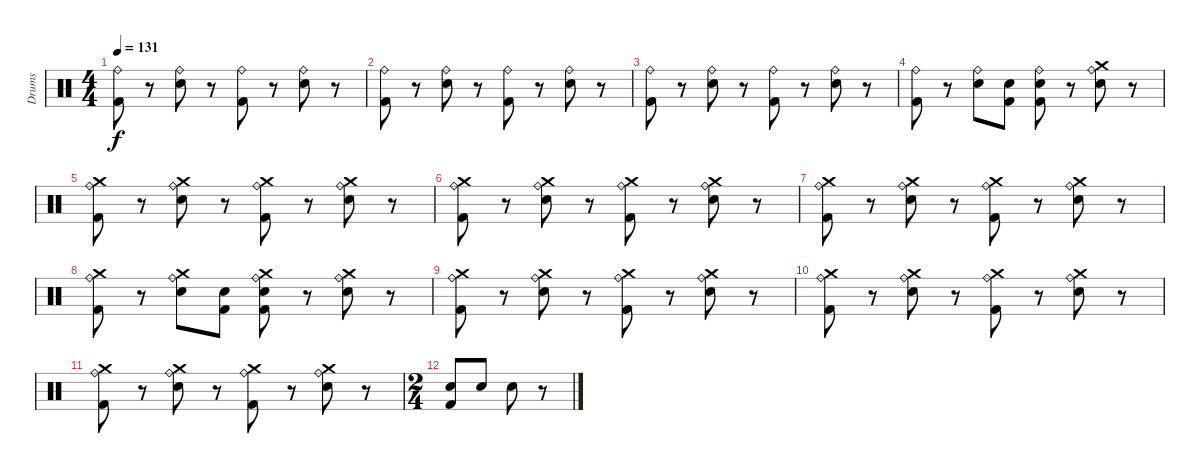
\track ("Drums" "Drums") {instrument percussion}
\staff {score}
\articulation defaults
\ts (4 4)
\tempo 131
\clef neutral
\ks c
("Ride (bell)" "Kick (hit) 2").8{dy f} r.8 ("Ride (bell)" "Electric Snare (hit)").8 r.8 ("Ride (bell)" "Kick (hit) 2").8 r.8 ("Ride (bell)" "Electric Snare (hit)").8 r.8 |
("Ride (bell)" "Kick (hit) 2").8 r.8 ("Ride (bell)" "Electric Snare (hit)").8 r.8 ("Ride (bell)" "Kick (hit) 2").8 r.8 ("Ride (bell)" "Electric Snare (hit)").8 r.8 |
("Ride (bell)" "Kick (hit) 2").8 r.8 ("Ride (bell)" "Electric Snare (hit)").8 r.8 ("Ride (bell)" "Kick (hit) 2").8 r.8 ("Ride (bell)" "Electric Snare (hit)").8 r.8 |
("Ride (bell)" "Kick (hit) 2").8 r.8 ("Ride (bell)" "Electric Snare (hit)").8 ("Electric Snare (hit)" "Kick (hit) 2").8 ("Ride (bell)" "Electric Snare (hit)" "Kick (hit) 2").8 r.8 ("Crash medium (hit)" "Ride (bell)" "Electric Snare (hit)").8 r.8 |
("Crash medium (hit)" "Ride (bell)" "Kick (hit) 2").8 r.8 ("Crash medium (hit)" "Ride (bell)" "Electric Snare (hit)").8 r.8 ("Crash medium (hit)" "Ride (bell)" "Kick (hit) 2").8 r.8 ("Crash medium (hit)" "Ride (bell)" "Electric Snare (hit)").8 r.8 |
("Crash medium (hit)" "Ride (bell)" "Kick (hit) 2").8 r.8 ("Crash medium (hit)" "Ride (bell)" "Electric Snare (hit)").8 r.8 ("Crash medium (hit)" "Ride (bell)" "Kick (hit) 2").8 r.8 ("Crash medium (hit)" "Ride (bell)" "Electric Snare (hit)").8 r.8 |
("Crash medium (hit)" "Ride (bell)" "Kick (hit) 2").8 r.8 ("Crash medium (hit)" "Ride (bell)" "Electric Snare (hit)").8 r.8 ("Crash medium (hit)" "Ride (bell)" "Kick (hit) 2").8 r.8 ("Crash medium (hit)" "Ride (bell)" "Electric Snare (hit)").8 r.8 |
("Crash medium (hit)" "Ride (bell)" "Kick (hit) 2").8 r.8 ("Crash medium (hit)" "Ride (bell)" "Electric Snare (hit)").8 ("Electric Snare (hit)" "Kick (hit) 2").8 ("Crash medium (hit)" "Ride (bell)" "Electric Snare (hit)" "Kick (hit) 2").8 r.8 ("Crash medium (hit)" "Ride (bell)" "Electric Snare (hit)").8 r.8 |
("Crash medium (hit)" "Ride (bell)" "Kick (hit) 2").8 r.8 ("Crash medium (hit)" "Ride (bell)" "Electric Snare (hit)").8 r.8 ("Crash medium (hit)" "Ride (bell)" "Kick (hit) 2").8 r.8 ("Crash medium (hit)" "Ride (bell)" "Electric Snare (hit)").8 r.8 |
("Crash medium (hit)" "Ride (bell)" "Kick (hit) 2").8 r.8 ("Crash medium (hit)" "Ride (bell)" "Electric Snare (hit)").8 r.8 ("Crash medium (hit)" "Ride (bell)" "Kick (hit) 2").8 r.8 ("Crash medium (hit)" "Ride (bell)" "Electric Snare (hit)").8 r.8 |
("Crash medium (hit)" "Ride (bell)" "Kick (hit) 2").8 r.8 ("Crash medium (hit)" "Ride (bell)" "Electric Snare (hit)").8 r.8 ("Crash medium (hit)" "Ride (bell)" "Kick (hit) 2").8 r.8 ("Crash medium (hit)" "Ride (bell)" "Electric Snare (hit)").8 r.8 |
\ts (2 4)
("Electric Snare (hit)" "Kick (hit) 2").8 "Electric Snare (hit)".8 "Electric Snare (hit)".8 r.8
